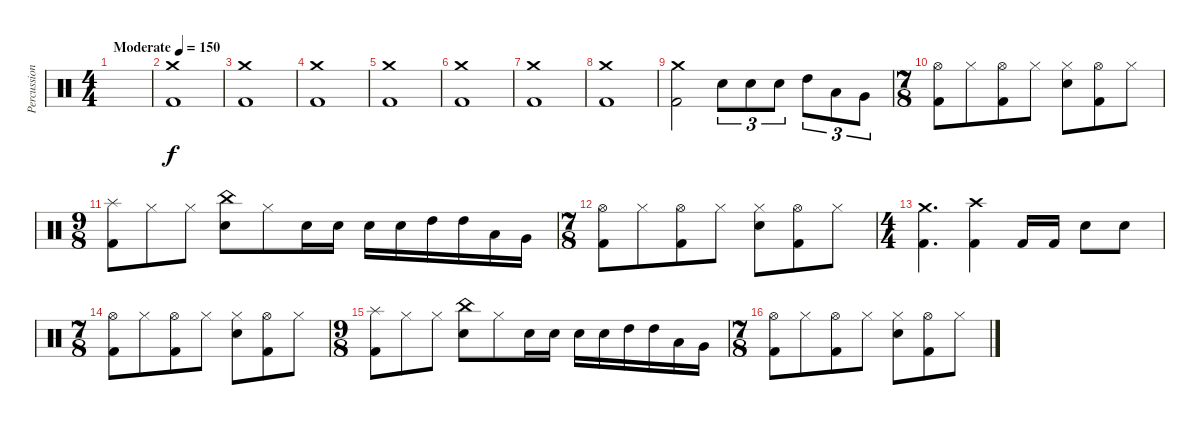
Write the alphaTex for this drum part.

\track ("Percussions" "Percussion") {instrument percussion}
\staff {score}
\articulation defaults
\ts (4 4)
\tempo (150 "Moderate")
\clef neutral
\ks c
|
("Crash medium (hit)" "Kick (hit) 2").1 |
("Crash medium (hit)" "Kick (hit) 2").1 |
("Crash medium (hit)" "Kick (hit) 2").1 |
("Crash medium (hit)" "Kick (hit) 2").1 |
("Crash medium (hit)" "Kick (hit) 2").1 |
("Crash medium (hit)" "Kick (hit) 2").1 |
("Crash medium (hit)" "Kick (hit) 2").1 |
("Crash medium (hit)" "Kick (hit) 2").2 "Snare (hit) 2".8{tu (3 2)} "Snare (hit) 2".8{tu (3 2)} "Snare (hit) 2".8{tu (3 2)} "High Tom (hit)".8{tu (3 2)} "Low Tom (hit)".8{tu (3 2)} "Very Low Tom (hit)".8{tu (3 2)} |
\ts (7 8)
("Hi-Hat (open)" "Kick (hit) 2").8 "Hi-Hat (closed)".8 ("Hi-Hat (open)" "Kick (hit) 2").8 "Hi-Hat (closed)".8 ("Hi-Hat (closed)" "Snare (hit) 2").8 ("Hi-Hat (open)" "Kick (hit) 2").8 "Hi-Hat (closed)".8 |
\ts (9 8)
("Splash (hit)" "Kick (hit) 2").8 "Hi-Hat (closed)".8 "Hi-Hat (closed)".8 ("China (hit)" "Snare (hit) 2").8 "Hi-Hat (closed)".8 "Snare (hit) 2".16 "Snare (hit) 2".16 "Snare (hit) 2".16 "Snare (hit) 2".16 "High Tom (hit)".16 "High Tom (hit)".16 "Low Tom (hit)".16 "Very Low Tom (hit)".16 |
\ts (7 8)
("Hi-Hat (open)" "Kick (hit) 2").8 "Hi-Hat (closed)".8 ("Hi-Hat (open)" "Kick (hit) 2").8 "Hi-Hat (closed)".8 ("Hi-Hat (closed)" "Snare (hit) 2").8 ("Hi-Hat (open)" "Kick (hit) 2").8 "Hi-Hat (closed)".8 |
\ts (4 4)
("Crash medium (hit)" "Kick (hit) 2").4{d} ("Crash high (hit)" "Kick (hit) 2").4 "Kick (hit) 2".16 "Kick (hit) 2".16 "Snare (hit) 2".8 "Snare (hit) 2".8 |
\ts (7 8)
("Hi-Hat (open)" "Kick (hit) 2").8 "Hi-Hat (closed)".8 ("Hi-Hat (open)" "Kick (hit) 2").8 "Hi-Hat (closed)".8 ("Hi-Hat (closed)" "Snare (hit) 2").8 ("Hi-Hat (open)" "Kick (hit) 2").8 "Hi-Hat (closed)".8 |
\ts (9 8)
("Splash (hit)" "Kick (hit) 2").8 "Hi-Hat (closed)".8 "Hi-Hat (closed)".8 ("China (hit)" "Snare (hit) 2").8 "Hi-Hat (closed)".8 "Snare (hit) 2".16 "Snare (hit) 2".16 "Snare (hit) 2".16 "Snare (hit) 2".16 "High Tom (hit)".16 "High Tom (hit)".16 "Low Tom (hit)".16 "Very Low Tom (hit)".16 |
\ts (7 8)
("Hi-Hat (open)" "Kick (hit) 2").8 "Hi-Hat (closed)".8 ("Hi-Hat (open)" "Kick (hit) 2").8 "Hi-Hat (closed)".8 ("Hi-Hat (closed)" "Snare (hit) 2").8 ("Hi-Hat (open)" "Kick (hit) 2").8 "Hi-Hat (closed)".8
